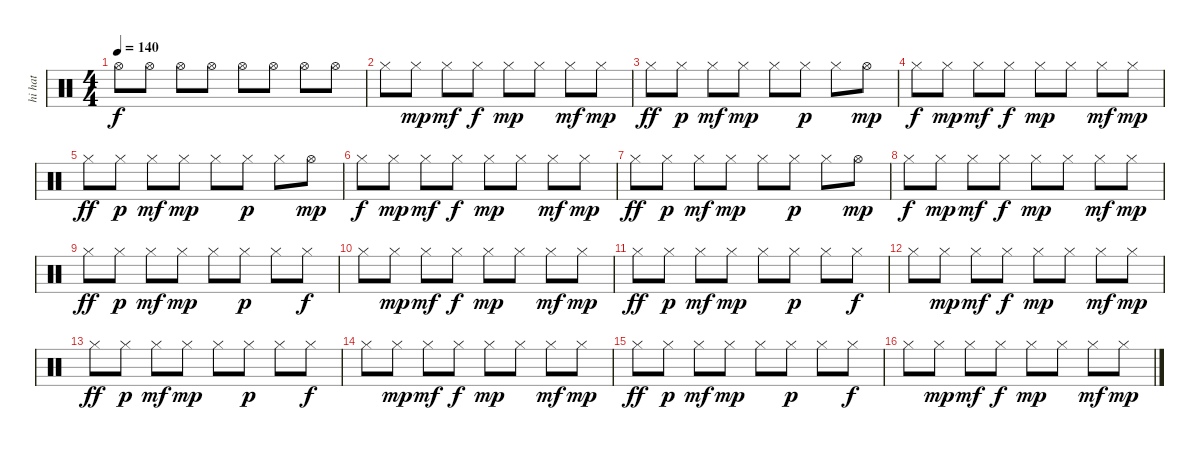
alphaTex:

\track ("hi hat" "hi hat") {instrument percussion}
\staff {score}
\articulation defaults
\ts (4 4)
\tempo 140
\clef neutral
\ks c "Hi-Hat (open)".8{dy f} "Hi-Hat (open)".8 "Hi-Hat (open)".8 "Hi-Hat (open)".8 "Hi-Hat (open)".8 "Hi-Hat (open)".8 "Hi-Hat (open)".8 "Hi-Hat (open)".8
|
"Hi-Hat (closed)".8 "Hi-Hat (closed)".8{dy mp} "Hi-Hat (closed)".8{dy mf} "Hi-Hat (closed)".8{dy f} "Hi-Hat (closed)".8{dy mp} "Hi-Hat (closed)".8 "Hi-Hat (closed)".8{dy mf} "Hi-Hat (closed)".8{dy mp} |
"Hi-Hat (closed)".8{dy ff} "Hi-Hat (closed)".8{dy p} "Hi-Hat (closed)".8{dy mf} "Hi-Hat (closed)".8{dy mp} "Hi-Hat (closed)".8 "Hi-Hat (closed)".8{dy p} "Hi-Hat (closed)".8 "Hi-Hat (open)".8{dy mp} |
"Hi-Hat (closed)".8{dy f} "Hi-Hat (closed)".8{dy mp} "Hi-Hat (closed)".8{dy mf} "Hi-Hat (closed)".8{dy f} "Hi-Hat (closed)".8{dy mp} "Hi-Hat (closed)".8 "Hi-Hat (closed)".8{dy mf} "Hi-Hat (closed)".8{dy mp} |
"Hi-Hat (closed)".8{dy ff} "Hi-Hat (closed)".8{dy p} "Hi-Hat (closed)".8{dy mf} "Hi-Hat (closed)".8{dy mp} "Hi-Hat (closed)".8 "Hi-Hat (closed)".8{dy p} "Hi-Hat (closed)".8 "Hi-Hat (open)".8{dy mp} |
"Hi-Hat (closed)".8{dy f} "Hi-Hat (closed)".8{dy mp} "Hi-Hat (closed)".8{dy mf} "Hi-Hat (closed)".8{dy f} "Hi-Hat (closed)".8{dy mp} "Hi-Hat (closed)".8 "Hi-Hat (closed)".8{dy mf} "Hi-Hat (closed)".8{dy mp} |
"Hi-Hat (closed)".8{dy ff} "Hi-Hat (closed)".8{dy p} "Hi-Hat (closed)".8{dy mf} "Hi-Hat (closed)".8{dy mp} "Hi-Hat (closed)".8 "Hi-Hat (closed)".8{dy p} "Hi-Hat (closed)".8 "Hi-Hat (open)".8{dy mp} |
"Hi-Hat (closed)".8{dy f} "Hi-Hat (closed)".8{dy mp} "Hi-Hat (closed)".8{dy mf} "Hi-Hat (closed)".8{dy f} "Hi-Hat (closed)".8{dy mp} "Hi-Hat (closed)".8 "Hi-Hat (closed)".8{dy mf} "Hi-Hat (closed)".8{dy mp} |
"Hi-Hat (closed)".8{dy ff} "Hi-Hat (closed)".8{dy p} "Hi-Hat (closed)".8{dy mf} "Hi-Hat (closed)".8{dy mp} "Hi-Hat (closed)".8 "Hi-Hat (closed)".8{dy p} "Hi-Hat (closed)".8 "Hi-Hat (closed)".8{dy f} |
"Hi-Hat (closed)".8 "Hi-Hat (closed)".8{dy mp} "Hi-Hat (closed)".8{dy mf} "Hi-Hat (closed)".8{dy f} "Hi-Hat (closed)".8{dy mp} "Hi-Hat (closed)".8 "Hi-Hat (closed)".8{dy mf} "Hi-Hat (closed)".8{dy mp} |
"Hi-Hat (closed)".8{dy ff} "Hi-Hat (closed)".8{dy p} "Hi-Hat (closed)".8{dy mf} "Hi-Hat (closed)".8{dy mp} "Hi-Hat (closed)".8 "Hi-Hat (closed)".8{dy p} "Hi-Hat (closed)".8 "Hi-Hat (closed)".8{dy f} |
"Hi-Hat (closed)".8 "Hi-Hat (closed)".8{dy mp} "Hi-Hat (closed)".8{dy mf} "Hi-Hat (closed)".8{dy f} "Hi-Hat (closed)".8{dy mp} "Hi-Hat (closed)".8 "Hi-Hat (closed)".8{dy mf} "Hi-Hat (closed)".8{dy mp} |
"Hi-Hat (closed)".8{dy ff} "Hi-Hat (closed)".8{dy p} "Hi-Hat (closed)".8{dy mf} "Hi-Hat (closed)".8{dy mp} "Hi-Hat (closed)".8 "Hi-Hat (closed)".8{dy p} "Hi-Hat (closed)".8 "Hi-Hat (closed)".8{dy f} |
"Hi-Hat (closed)".8 "Hi-Hat (closed)".8{dy mp} "Hi-Hat (closed)".8{dy mf} "Hi-Hat (closed)".8{dy f} "Hi-Hat (closed)".8{dy mp} "Hi-Hat (closed)".8 "Hi-Hat (closed)".8{dy mf} "Hi-Hat (closed)".8{dy mp} |
"Hi-Hat (closed)".8{dy ff} "Hi-Hat (closed)".8{dy p} "Hi-Hat (closed)".8{dy mf} "Hi-Hat (closed)".8{dy mp} "Hi-Hat (closed)".8 "Hi-Hat (closed)".8{dy p} "Hi-Hat (closed)".8 "Hi-Hat (closed)".8{dy f} |
"Hi-Hat (closed)".8 "Hi-Hat (closed)".8{dy mp} "Hi-Hat (closed)".8{dy mf} "Hi-Hat (closed)".8{dy f} "Hi-Hat (closed)".8{dy mp} "Hi-Hat (closed)".8 "Hi-Hat (closed)".8{dy mf} "Hi-Hat (closed)".8{dy mp}
